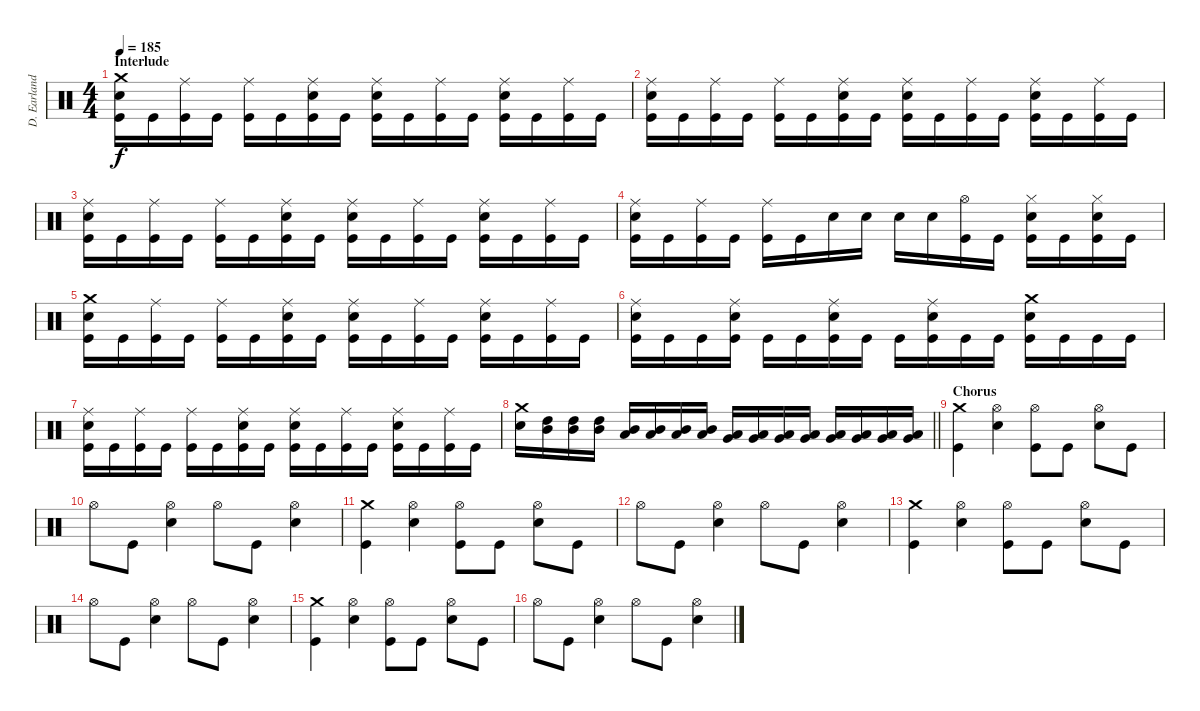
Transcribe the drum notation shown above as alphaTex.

\track ("D. Earlanddson" "D. Earland") {instrument percussion}
\staff {score}
\articulation defaults
\ts (4 4)
\section ("" "Interlude")
\tempo 185
\clef neutral
\ks c
("Crash medium (hit)" "Electric Snare (hit)" "Kick (hit)").16{dy f} "Kick (hit)".16 ("Ride (middle)" "Kick (hit)").16 "Kick (hit)".16 ("Ride (middle)" "Kick (hit)").16 "Kick (hit)".16 ("Ride (middle)" "Electric Snare (hit)" "Kick (hit)").16 "Kick (hit)".16 ("Ride (middle)" "Electric Snare (hit)" "Kick (hit)").16 "Kick (hit)".16 ("Ride (middle)" "Kick (hit)").16 "Kick (hit)".16 ("Ride (middle)" "Electric Snare (hit)" "Kick (hit)").16 "Kick (hit)".16 ("Ride (middle)" "Kick (hit)").16 "Kick (hit)".16 |
("Ride (middle)" "Electric Snare (hit)" "Kick (hit)").16 "Kick (hit)".16 ("Ride (middle)" "Kick (hit)").16 "Kick (hit)".16 ("Ride (middle)" "Kick (hit)").16 "Kick (hit)".16 ("Ride (middle)" "Electric Snare (hit)" "Kick (hit)").16 "Kick (hit)".16 ("Ride (middle)" "Electric Snare (hit)" "Kick (hit)").16 "Kick (hit)".16 ("Ride (middle)" "Kick (hit)").16 "Kick (hit)".16 ("Ride (middle)" "Electric Snare (hit)" "Kick (hit)").16 "Kick (hit)".16 ("Ride (middle)" "Kick (hit)").16 "Kick (hit)".16 |
("Ride (middle)" "Electric Snare (hit)" "Kick (hit)").16 "Kick (hit)".16 ("Ride (middle)" "Kick (hit)").16 "Kick (hit)".16 ("Ride (middle)" "Kick (hit)").16 "Kick (hit)".16 ("Ride (middle)" "Electric Snare (hit)" "Kick (hit)").16 "Kick (hit)".16 ("Ride (middle)" "Electric Snare (hit)" "Kick (hit)").16 "Kick (hit)".16 ("Ride (middle)" "Kick (hit)").16 "Kick (hit)".16 ("Ride (middle)" "Electric Snare (hit)" "Kick (hit)").16 "Kick (hit)".16 ("Ride (middle)" "Kick (hit)").16 "Kick (hit)".16 |
("Ride (middle)" "Electric Snare (hit)" "Kick (hit)").16 "Kick (hit)".16 ("Ride (middle)" "Kick (hit)").16 "Kick (hit)".16 ("Ride (middle)" "Kick (hit)").16 "Kick (hit)".16 "Electric Snare (hit)".16 "Electric Snare (hit)".16 "Electric Snare (hit)".16 "Electric Snare (hit)".16 ("Hi-Hat (open)" "Kick (hit)").16 "Kick (hit)".16 ("Hi-Hat (closed)" "Electric Snare (hit)" "Kick (hit)").16 "Kick (hit)".16 ("Hi-Hat (closed)" "Electric Snare (hit)" "Kick (hit)").16 "Kick (hit)".16 |
("Crash medium (hit)" "Electric Snare (hit)" "Kick (hit)").16 "Kick (hit)".16 ("Ride (middle)" "Kick (hit)").16 "Kick (hit)".16 ("Ride (middle)" "Kick (hit)").16 "Kick (hit)".16 ("Ride (middle)" "Electric Snare (hit)" "Kick (hit)").16 "Kick (hit)".16 ("Ride (middle)" "Electric Snare (hit)" "Kick (hit)").16 "Kick (hit)".16 ("Ride (middle)" "Kick (hit)").16 "Kick (hit)".16 ("Ride (middle)" "Electric Snare (hit)" "Kick (hit)").16 "Kick (hit)".16 ("Ride (middle)" "Kick (hit)").16 "Kick (hit)".16 |
("Ride (middle)" "Electric Snare (hit)" "Kick (hit)").16 "Kick (hit)".16 "Kick (hit)".16 ("Ride (middle)" "Electric Snare (hit)" "Kick (hit)").16 "Kick (hit)".16 "Kick (hit)".16 ("Ride (middle)" "Electric Snare (hit)" "Kick (hit)").16 "Kick (hit)".16 "Kick (hit)".16 ("Ride (middle)" "Electric Snare (hit)" "Kick (hit)").16 "Kick (hit)".16 "Kick (hit)".16 ("Crash medium (hit)" "Electric Snare (hit)" "Kick (hit)").16 "Kick (hit)".16 "Kick (hit)".16 "Kick (hit)".16 |
("Ride (middle)" "Electric Snare (hit)" "Kick (hit)").16 "Kick (hit)".16 ("Ride (middle)" "Kick (hit)").16 "Kick (hit)".16 ("Ride (middle)" "Kick (hit)").16 "Kick (hit)".16 ("Ride (middle)" "Electric Snare (hit)" "Kick (hit)").16 "Kick (hit)".16 ("Ride (middle)" "Electric Snare (hit)" "Kick (hit)").16 "Kick (hit)".16 ("Ride (middle)" "Kick (hit)").16 "Kick (hit)".16 ("Ride (middle)" "Electric Snare (hit)" "Kick (hit)").16 "Kick (hit)".16 ("Ride (middle)" "Kick (hit)").16 "Kick (hit)".16 |
\barLineRight lightlight
("Crash medium (hit)" "Electric Snare (hit)").16 ("High Tom (hit)" "Mid Tom (hit)").16 ("High Tom (hit)" "Mid Tom (hit)").16 ("High Tom (hit)" "Mid Tom (hit)").16 ("Mid Tom (hit)" "Low Tom (hit)").16 ("Mid Tom (hit)" "Low Tom (hit)").16 ("Mid Tom (hit)" "Low Tom (hit)").16 ("Mid Tom (hit)" "Low Tom (hit)").16 ("Low Tom (hit)" "Very Low Tom (hit)").16 ("Low Tom (hit)" "Very Low Tom (hit)").16 ("Low Tom (hit)" "Very Low Tom (hit)").16 ("Low Tom (hit)" "Very Low Tom (hit)").16 ("Very Low Tom (hit)" "Low Floor Tom (hit)").16 ("Very Low Tom (hit)" "Low Floor Tom (hit)").16 ("Very Low Tom (hit)" "Low Floor Tom (hit)").16 ("Very Low Tom (hit)" "Low Floor Tom (hit)").16 |
\section ("" "Chorus")
("Crash medium (hit)" "Kick (hit)").4 ("Hi-Hat (open)" "Electric Snare (hit)").4 ("Hi-Hat (open)" "Kick (hit)").8 "Kick (hit)".8 ("Hi-Hat (open)" "Electric Snare (hit)").8 "Kick (hit)".8 |
"Hi-Hat (open)".8 "Kick (hit)".8 ("Hi-Hat (open)" "Electric Snare (hit)").4 "Hi-Hat (open)".8 "Kick (hit)".8 ("Hi-Hat (open)" "Electric Snare (hit)").4 |
("Crash medium (hit)" "Kick (hit)").4 ("Hi-Hat (open)" "Electric Snare (hit)").4 ("Hi-Hat (open)" "Kick (hit)").8 "Kick (hit)".8 ("Hi-Hat (open)" "Electric Snare (hit)").8 "Kick (hit)".8 |
"Hi-Hat (open)".8 "Kick (hit)".8 ("Hi-Hat (open)" "Electric Snare (hit)").4 "Hi-Hat (open)".8 "Kick (hit)".8 ("Hi-Hat (open)" "Electric Snare (hit)").4 |
("Crash medium (hit)" "Kick (hit)").4 ("Hi-Hat (open)" "Electric Snare (hit)").4 ("Hi-Hat (open)" "Kick (hit)").8 "Kick (hit)".8 ("Hi-Hat (open)" "Electric Snare (hit)").8 "Kick (hit)".8 |
"Hi-Hat (open)".8 "Kick (hit)".8 ("Hi-Hat (open)" "Electric Snare (hit)").4 "Hi-Hat (open)".8 "Kick (hit)".8 ("Hi-Hat (open)" "Electric Snare (hit)").4 |
("Crash medium (hit)" "Kick (hit)").4 ("Hi-Hat (open)" "Electric Snare (hit)").4 ("Hi-Hat (open)" "Kick (hit)").8 "Kick (hit)".8 ("Hi-Hat (open)" "Electric Snare (hit)").8 "Kick (hit)".8 |
"Hi-Hat (open)".8 "Kick (hit)".8 ("Hi-Hat (open)" "Electric Snare (hit)").4 "Hi-Hat (open)".8 "Kick (hit)".8 ("Hi-Hat (open)" "Electric Snare (hit)").4
